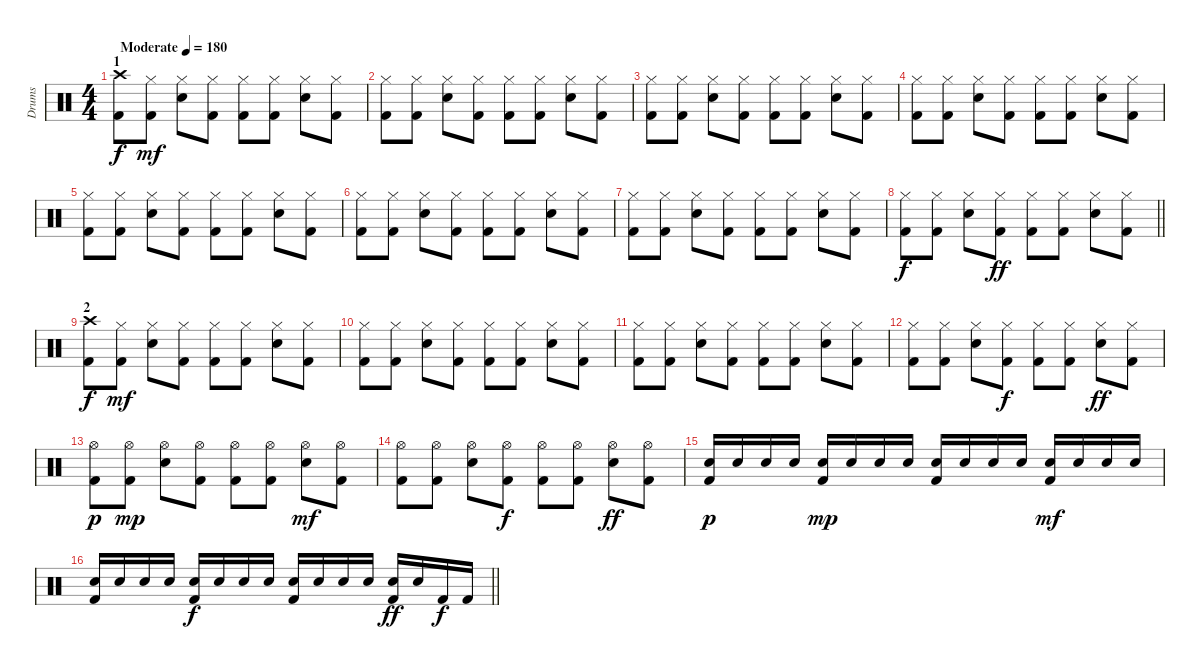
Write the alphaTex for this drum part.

\track ("Drums" "Drums") {instrument percussion}
\staff {score}
\articulation defaults
\ts (4 4)
\section ("" "1")
\tempo (180 "Moderate")
\clef neutral
\ks c
("Crash high (hit)" "Kick (hit) 2").8{dy f} ("Hi-Hat (closed)" "Kick (hit) 2").8{dy mf} ("Hi-Hat (closed)" "Electric Snare (hit)").8 ("Hi-Hat (closed)" "Kick (hit) 2").8 ("Hi-Hat (closed)" "Kick (hit) 2").8 ("Hi-Hat (closed)" "Kick (hit) 2").8 ("Hi-Hat (closed)" "Electric Snare (hit)").8 ("Hi-Hat (closed)" "Kick (hit) 2").8 |
("Hi-Hat (closed)" "Kick (hit) 2").8 ("Hi-Hat (closed)" "Kick (hit) 2").8 ("Hi-Hat (closed)" "Electric Snare (hit)").8 ("Hi-Hat (closed)" "Kick (hit) 2").8 ("Hi-Hat (closed)" "Kick (hit) 2").8 ("Hi-Hat (closed)" "Kick (hit) 2").8 ("Hi-Hat (closed)" "Electric Snare (hit)").8 ("Hi-Hat (closed)" "Kick (hit) 2").8 |
("Hi-Hat (closed)" "Kick (hit) 2").8 ("Hi-Hat (closed)" "Kick (hit) 2").8 ("Hi-Hat (closed)" "Electric Snare (hit)").8 ("Hi-Hat (closed)" "Kick (hit) 2").8 ("Hi-Hat (closed)" "Kick (hit) 2").8 ("Hi-Hat (closed)" "Kick (hit) 2").8 ("Hi-Hat (closed)" "Electric Snare (hit)").8 ("Hi-Hat (closed)" "Kick (hit) 2").8 |
("Hi-Hat (closed)" "Kick (hit) 2").8 ("Hi-Hat (closed)" "Kick (hit) 2").8 ("Hi-Hat (closed)" "Electric Snare (hit)").8 ("Hi-Hat (closed)" "Kick (hit) 2").8 ("Hi-Hat (closed)" "Kick (hit) 2").8 ("Hi-Hat (closed)" "Kick (hit) 2").8 ("Hi-Hat (closed)" "Electric Snare (hit)").8 ("Hi-Hat (closed)" "Kick (hit) 2").8 |
("Hi-Hat (closed)" "Kick (hit) 2").8 ("Hi-Hat (closed)" "Kick (hit) 2").8 ("Hi-Hat (closed)" "Electric Snare (hit)").8 ("Hi-Hat (closed)" "Kick (hit) 2").8 ("Hi-Hat (closed)" "Kick (hit) 2").8 ("Hi-Hat (closed)" "Kick (hit) 2").8 ("Hi-Hat (closed)" "Electric Snare (hit)").8 ("Hi-Hat (closed)" "Kick (hit) 2").8 |
("Hi-Hat (closed)" "Kick (hit) 2").8 ("Hi-Hat (closed)" "Kick (hit) 2").8 ("Hi-Hat (closed)" "Electric Snare (hit)").8 ("Hi-Hat (closed)" "Kick (hit) 2").8 ("Hi-Hat (closed)" "Kick (hit) 2").8 ("Hi-Hat (closed)" "Kick (hit) 2").8 ("Hi-Hat (closed)" "Electric Snare (hit)").8 ("Hi-Hat (closed)" "Kick (hit) 2").8 |
("Hi-Hat (closed)" "Kick (hit) 2").8 ("Hi-Hat (closed)" "Kick (hit) 2").8 ("Hi-Hat (closed)" "Electric Snare (hit)").8 ("Hi-Hat (closed)" "Kick (hit) 2").8 ("Hi-Hat (closed)" "Kick (hit) 2").8 ("Hi-Hat (closed)" "Kick (hit) 2").8 ("Hi-Hat (closed)" "Electric Snare (hit)").8 ("Hi-Hat (closed)" "Kick (hit) 2").8 |
\barLineRight lightlight
("Hi-Hat (closed)" "Kick (hit) 2").8{dy f} ("Hi-Hat (closed)" "Kick (hit) 2").8 ("Hi-Hat (closed)" "Electric Snare (hit)").8 ("Hi-Hat (closed)" "Kick (hit) 2").8{dy ff} ("Hi-Hat (closed)" "Kick (hit) 2").8 ("Hi-Hat (closed)" "Kick (hit) 2").8 ("Hi-Hat (closed)" "Electric Snare (hit)").8 ("Hi-Hat (closed)" "Kick (hit) 2").8 |
\section ("" "2")
("Crash high (hit)" "Kick (hit) 2").8{dy f} ("Hi-Hat (closed)" "Kick (hit) 2").8{dy mf} ("Hi-Hat (closed)" "Electric Snare (hit)").8 ("Hi-Hat (closed)" "Kick (hit) 2").8 ("Hi-Hat (closed)" "Kick (hit) 2").8 ("Hi-Hat (closed)" "Kick (hit) 2").8 ("Hi-Hat (closed)" "Electric Snare (hit)").8 ("Hi-Hat (closed)" "Kick (hit) 2").8 |
("Hi-Hat (closed)" "Kick (hit) 2").8 ("Hi-Hat (closed)" "Kick (hit) 2").8 ("Hi-Hat (closed)" "Electric Snare (hit)").8 ("Hi-Hat (closed)" "Kick (hit) 2").8 ("Hi-Hat (closed)" "Kick (hit) 2").8 ("Hi-Hat (closed)" "Kick (hit) 2").8 ("Hi-Hat (closed)" "Electric Snare (hit)").8 ("Hi-Hat (closed)" "Kick (hit) 2").8 |
("Hi-Hat (closed)" "Kick (hit) 2").8 ("Hi-Hat (closed)" "Kick (hit) 2").8 ("Hi-Hat (closed)" "Electric Snare (hit)").8 ("Hi-Hat (closed)" "Kick (hit) 2").8 ("Hi-Hat (closed)" "Kick (hit) 2").8 ("Hi-Hat (closed)" "Kick (hit) 2").8 ("Hi-Hat (closed)" "Electric Snare (hit)").8 ("Hi-Hat (closed)" "Kick (hit) 2").8 |
("Hi-Hat (closed)" "Kick (hit) 2").8 ("Hi-Hat (closed)" "Kick (hit) 2").8 ("Hi-Hat (closed)" "Electric Snare (hit)").8 ("Hi-Hat (closed)" "Kick (hit) 2").8{dy f} ("Hi-Hat (closed)" "Kick (hit) 2").8 ("Hi-Hat (closed)" "Kick (hit) 2").8 ("Hi-Hat (closed)" "Electric Snare (hit)").8{dy ff} ("Hi-Hat (closed)" "Kick (hit) 2").8 |
("Hi-Hat (open)" "Kick (hit) 2").8{dy p} ("Hi-Hat (open)" "Kick (hit) 2").8{dy mp} ("Hi-Hat (open)" "Electric Snare (hit)").8 ("Hi-Hat (open)" "Kick (hit) 2").8 ("Hi-Hat (open)" "Kick (hit) 2").8 ("Hi-Hat (open)" "Kick (hit) 2").8 ("Hi-Hat (open)" "Electric Snare (hit)").8{dy mf} ("Hi-Hat (open)" "Kick (hit) 2").8 |
("Hi-Hat (open)" "Kick (hit) 2").8 ("Hi-Hat (open)" "Kick (hit) 2").8 ("Hi-Hat (open)" "Electric Snare (hit)").8 ("Hi-Hat (open)" "Kick (hit) 2").8{dy f} ("Hi-Hat (open)" "Kick (hit) 2").8 ("Hi-Hat (open)" "Kick (hit) 2").8 ("Hi-Hat (open)" "Electric Snare (hit)").8{dy ff} ("Hi-Hat (open)" "Kick (hit) 2").8 |
("Electric Snare (hit)" "Kick (hit) 2").16{dy p} "Electric Snare (hit)".16 "Electric Snare (hit)".16 "Electric Snare (hit)".16 ("Electric Snare (hit)" "Kick (hit) 2").16{dy mp} "Electric Snare (hit)".16 "Electric Snare (hit)".16 "Electric Snare (hit)".16 ("Electric Snare (hit)" "Kick (hit) 2").16 "Electric Snare (hit)".16 "Electric Snare (hit)".16 "Electric Snare (hit)".16 ("Electric Snare (hit)" "Kick (hit) 2").16{dy mf} "Electric Snare (hit)".16 "Electric Snare (hit)".16 "Electric Snare (hit)".16 |
\barLineRight lightlight
("Electric Snare (hit)" "Kick (hit) 2").16 "Electric Snare (hit)".16 "Electric Snare (hit)".16 "Electric Snare (hit)".16 ("Electric Snare (hit)" "Kick (hit) 2").16{dy f} "Electric Snare (hit)".16 "Electric Snare (hit)".16 "Electric Snare (hit)".16 ("Electric Snare (hit)" "Kick (hit) 2").16 "Electric Snare (hit)".16 "Electric Snare (hit)".16 "Electric Snare (hit)".16 ("Electric Snare (hit)" "Kick (hit) 2").16{dy ff} "Electric Snare (hit)".16 "Kick (hit) 2".16{dy f} "Kick (hit) 2".16
